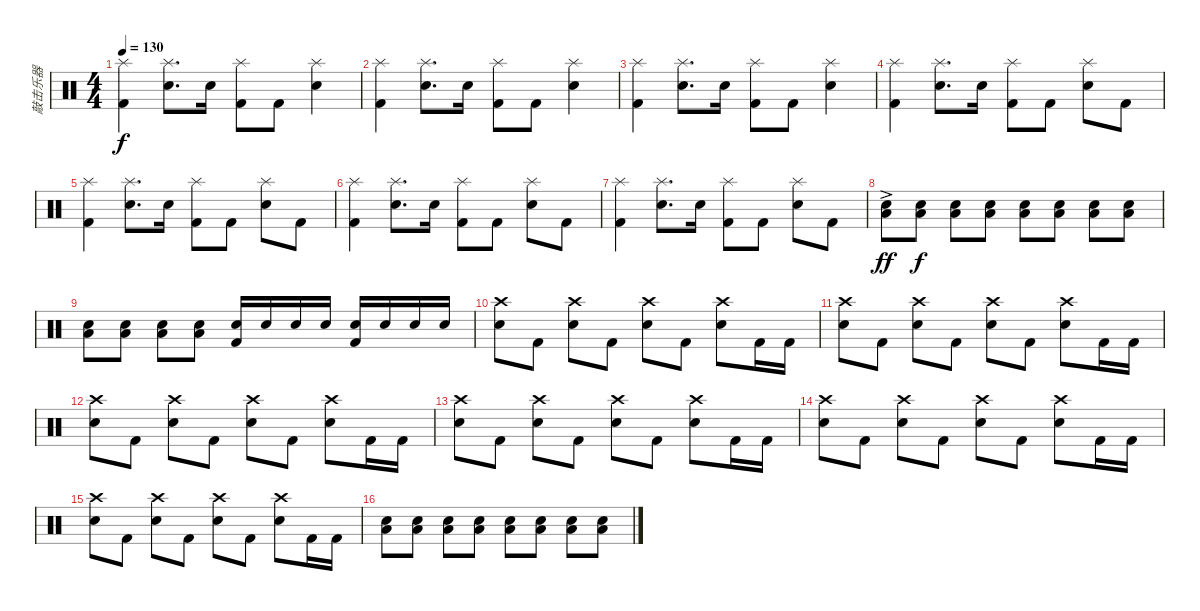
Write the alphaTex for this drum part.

\track ("敲击乐器" "敲击乐器") {instrument percussion}
\staff {score}
\articulation defaults
\ts (4 4)
\tempo 130
\clef neutral
\ks c
("Splash (hit)" "Kick (hit) 2").4{dy f} ("Splash (hit)" "Snare (hit) 2").8{d} "Snare (hit) 2".16 ("Splash (hit)" "Kick (hit) 2").8 "Kick (hit) 2".8 ("Splash (hit)" "Snare (hit) 2").4 |
("Splash (hit)" "Kick (hit) 2").4 ("Splash (hit)" "Snare (hit) 2").8{d} "Snare (hit) 2".16 ("Splash (hit)" "Kick (hit) 2").8 "Kick (hit) 2".8 ("Splash (hit)" "Snare (hit) 2").4 |
("Splash (hit)" "Kick (hit) 2").4 ("Splash (hit)" "Snare (hit) 2").8{d} "Snare (hit) 2".16 ("Splash (hit)" "Kick (hit) 2").8 "Kick (hit) 2".8 ("Splash (hit)" "Snare (hit) 2").4 |
("Splash (hit)" "Kick (hit) 2").4 ("Splash (hit)" "Snare (hit) 2").8{d} "Snare (hit) 2".16 ("Splash (hit)" "Kick (hit) 2").8 "Kick (hit) 2".8 ("Splash (hit)" "Snare (hit) 2").8 "Kick (hit) 2".8 |
("Splash (hit)" "Kick (hit) 2").4 ("Splash (hit)" "Snare (hit) 2").8{d} "Snare (hit) 2".16 ("Splash (hit)" "Kick (hit) 2").8 "Kick (hit) 2".8 ("Splash (hit)" "Snare (hit) 2").8 "Kick (hit) 2".8 |
("Splash (hit)" "Kick (hit) 2").4 ("Splash (hit)" "Snare (hit) 2").8{d} "Snare (hit) 2".16 ("Splash (hit)" "Kick (hit) 2").8 "Kick (hit) 2".8 ("Splash (hit)" "Snare (hit) 2").8 "Kick (hit) 2".8 |
("Splash (hit)" "Kick (hit) 2").4 ("Splash (hit)" "Snare (hit) 2").8{d} "Snare (hit) 2".16 ("Splash (hit)" "Kick (hit) 2").8 "Kick (hit) 2".8 ("Splash (hit)" "Snare (hit) 2").8 "Kick (hit) 2".8 |
("Snare (hit) 2"{ac} "Low Floor Tom (hit)").8{dy ff} ("Snare (hit) 2" "Low Floor Tom (hit)").8{dy f} ("Snare (hit) 2" "Low Floor Tom (hit)").8 ("Snare (hit) 2" "Low Floor Tom (hit)").8 ("Snare (hit) 2" "Low Floor Tom (hit)").8 ("Snare (hit) 2" "Low Floor Tom (hit)").8 ("Snare (hit) 2" "Low Floor Tom (hit)").8 ("Snare (hit) 2" "Low Floor Tom (hit)").8 |
("Snare (hit) 2" "Low Floor Tom (hit)").8 ("Snare (hit) 2" "Low Floor Tom (hit)").8 ("Snare (hit) 2" "Low Floor Tom (hit)").8 ("Snare (hit) 2" "Low Floor Tom (hit)").8 ("Snare (hit) 2" "Kick (hit) 2").16 "Snare (hit) 2".16 "Snare (hit) 2".16 "Snare (hit) 2".16 ("Snare (hit) 2" "Kick (hit) 2").16 "Snare (hit) 2".16 "Snare (hit) 2".16 "Snare (hit) 2".16 |
("Crash high (hit)" "Snare (hit) 2").8 "Kick (hit) 2".8 ("Crash high (hit)" "Snare (hit) 2").8 "Kick (hit) 2".8 ("Crash high (hit)" "Snare (hit) 2").8 "Kick (hit) 2".8 ("Crash high (hit)" "Snare (hit) 2").8 "Kick (hit) 2".16 "Kick (hit) 2".16 |
("Crash high (hit)" "Snare (hit) 2").8 "Kick (hit) 2".8 ("Crash high (hit)" "Snare (hit) 2").8 "Kick (hit) 2".8 ("Crash high (hit)" "Snare (hit) 2").8 "Kick (hit) 2".8 ("Crash high (hit)" "Snare (hit) 2").8 "Kick (hit) 2".16 "Kick (hit) 2".16 |
("Crash high (hit)" "Snare (hit) 2").8 "Kick (hit) 2".8 ("Crash high (hit)" "Snare (hit) 2").8 "Kick (hit) 2".8 ("Crash high (hit)" "Snare (hit) 2").8 "Kick (hit) 2".8 ("Crash high (hit)" "Snare (hit) 2").8 "Kick (hit) 2".16 "Kick (hit) 2".16 |
("Crash high (hit)" "Snare (hit) 2").8 "Kick (hit) 2".8 ("Crash high (hit)" "Snare (hit) 2").8 "Kick (hit) 2".8 ("Crash high (hit)" "Snare (hit) 2").8 "Kick (hit) 2".8 ("Crash high (hit)" "Snare (hit) 2").8 "Kick (hit) 2".16 "Kick (hit) 2".16 |
("Crash high (hit)" "Snare (hit) 2").8 "Kick (hit) 2".8 ("Crash high (hit)" "Snare (hit) 2").8 "Kick (hit) 2".8 ("Crash high (hit)" "Snare (hit) 2").8 "Kick (hit) 2".8 ("Crash high (hit)" "Snare (hit) 2").8 "Kick (hit) 2".16 "Kick (hit) 2".16 |
("Crash high (hit)" "Snare (hit) 2").8 "Kick (hit) 2".8 ("Crash high (hit)" "Snare (hit) 2").8 "Kick (hit) 2".8 ("Crash high (hit)" "Snare (hit) 2").8 "Kick (hit) 2".8 ("Crash high (hit)" "Snare (hit) 2").8 "Kick (hit) 2".16 "Kick (hit) 2".16 |
("Snare (hit) 2" "Low Floor Tom (hit)").8 ("Snare (hit) 2" "Low Floor Tom (hit)").8 ("Snare (hit) 2" "Low Floor Tom (hit)").8 ("Snare (hit) 2" "Low Floor Tom (hit)").8 ("Snare (hit) 2" "Low Floor Tom (hit)").8 ("Snare (hit) 2" "Low Floor Tom (hit)").8 ("Snare (hit) 2" "Low Floor Tom (hit)").8 ("Snare (hit) 2" "Low Floor Tom (hit)").8
